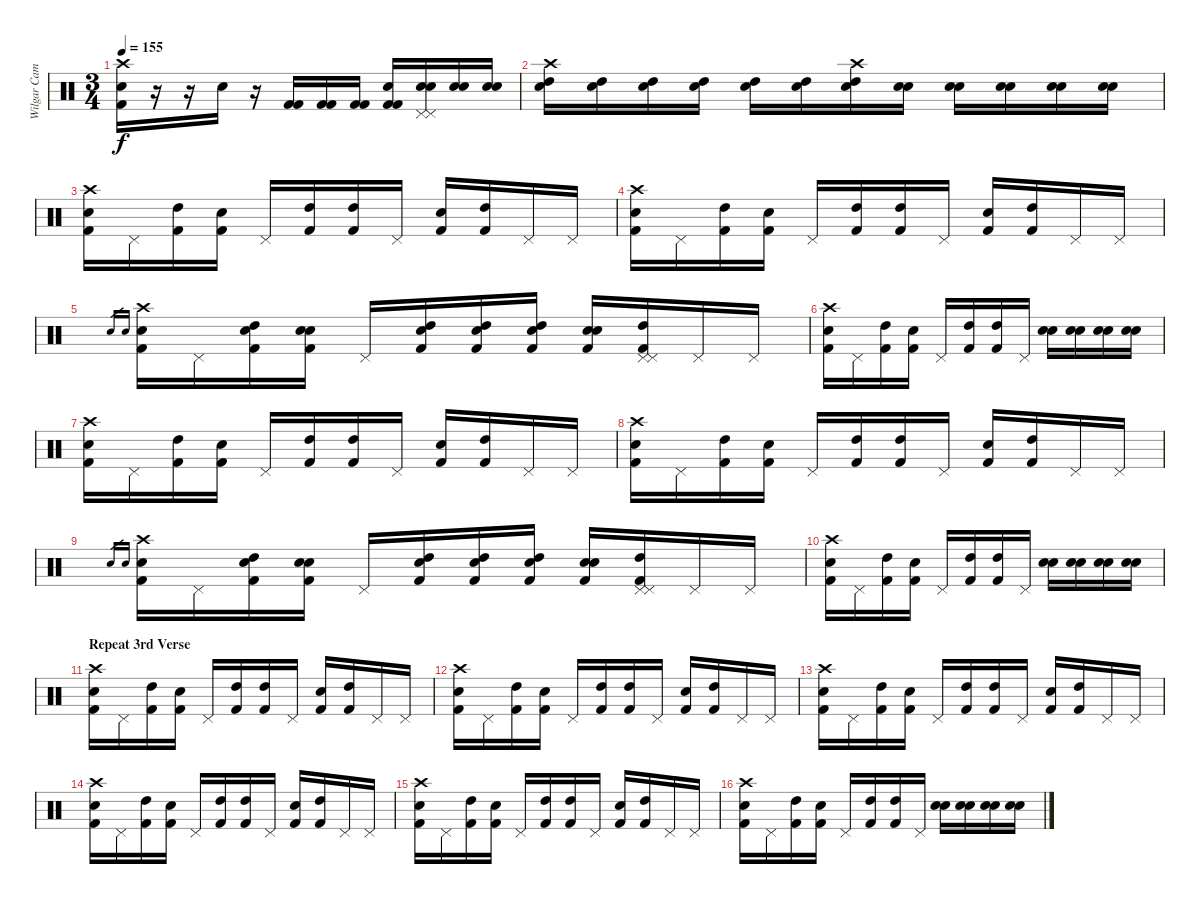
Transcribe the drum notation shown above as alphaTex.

\track ("Wilgar Campbell" "Wilgar Cam") {instrument percussion}
\staff {score}
\articulation defaults
\ts (3 4)
\tempo 155
\clef neutral
\ks c
("Snare (hit) 2" "Kick (hit) 2" "Crash high (hit)").16{dy f} r.16 r.16 "Electric Snare (hit)".16 r.16 ("Kick (hit) 2" "Kick (hit) 2").16 ("Kick (hit) 2" "Kick (hit) 2").16 ("Kick (hit) 2" "Kick (hit) 2").16 ("Kick (hit) 2" "Kick (hit) 2" "Electric Snare (hit)").16 ("Pedal Hi-Hat (hit)" "Electric Snare (hit)" "Pedal Hi-Hat (hit)" "Electric Snare (hit)").16 ("Electric Snare (hit)" "Electric Snare (hit)").16 ("Electric Snare (hit)" "Electric Snare (hit)").16 |
("Crash high (hit)" "High Tom (hit)" "Snare (hit) 2").16 ("High Tom (hit)" "Snare (hit) 2").16 ("High Tom (hit)" "Snare (hit) 2").16 ("High Tom (hit)" "Snare (hit) 2").16 ("High Tom (hit)" "Snare (hit) 2").16 ("High Tom (hit)" "Snare (hit) 2").16 ("Crash high (hit)" "High Tom (hit)" "Snare (hit) 2").16 ("Electric Snare (hit)" "Electric Snare (hit)").16 ("Electric Snare (hit)" "Snare (hit) 2").16 ("Electric Snare (hit)" "Electric Snare (hit)").16 ("Electric Snare (hit)" "Snare (hit) 2").16 ("Electric Snare (hit)" "Electric Snare (hit)").16 |
("Kick (hit) 2" "Snare (hit) 2" "Crash high (hit)").16 "Pedal Hi-Hat (hit)".16 ("Kick (hit) 2" "High Tom (hit)").16 ("Kick (hit) 2" "Snare (hit) 2").16 "Pedal Hi-Hat (hit)".16 ("High Tom (hit)" "Kick (hit) 2").16 ("High Tom (hit)" "Kick (hit) 2").16 "Pedal Hi-Hat (hit)".16 ("Electric Snare (hit)" "Kick (hit) 2").16 ("High Tom (hit)" "Kick (hit) 2").16 "Pedal Hi-Hat (hit)".16 "Pedal Hi-Hat (hit)".16 |
("Kick (hit) 2" "Snare (hit) 2" "Crash high (hit)").16 "Pedal Hi-Hat (hit)".16 ("Kick (hit) 2" "High Tom (hit)").16 ("Kick (hit) 2" "Snare (hit) 2").16 "Pedal Hi-Hat (hit)".16 ("High Tom (hit)" "Kick (hit) 2").16 ("High Tom (hit)" "Kick (hit) 2").16 "Pedal Hi-Hat (hit)".16 ("Electric Snare (hit)" "Kick (hit) 2").16 ("High Tom (hit)" "Kick (hit) 2").16 "Pedal Hi-Hat (hit)".16 "Pedal Hi-Hat (hit)".16 |
"Electric Snare (hit)".16{gr} "Electric Snare (hit)".16{gr} ("Kick (hit) 2" "Snare (hit) 2" "Crash high (hit)").16 "Pedal Hi-Hat (hit)".16 ("Electric Snare (hit)" "Kick (hit) 2" "High Tom (hit)").16 ("Electric Snare (hit)" "Kick (hit) 2" "Snare (hit) 2").16 "Pedal Hi-Hat (hit)".16 ("Electric Snare (hit)" "High Tom (hit)" "Kick (hit) 2").16 ("Electric Snare (hit)" "High Tom (hit)" "Kick (hit) 2").16 ("Electric Snare (hit)" "High Tom (hit)" "Kick (hit) 2").16 ("Electric Snare (hit)" "Electric Snare (hit)" "Kick (hit) 2").16 ("Kick (hit) 2" "Pedal Hi-Hat (hit)" "High Tom (hit)" "Pedal Hi-Hat (hit)").16 "Pedal Hi-Hat (hit)".16 "Pedal Hi-Hat (hit)".16 |
("Kick (hit) 2" "Snare (hit) 2" "Crash high (hit)").16 "Pedal Hi-Hat (hit)".16 ("Kick (hit) 2" "High Tom (hit)").16 ("Kick (hit) 2" "Snare (hit) 2").16 "Pedal Hi-Hat (hit)".16 ("High Tom (hit)" "Kick (hit) 2").16 ("High Tom (hit)" "Kick (hit) 2").16 "Pedal Hi-Hat (hit)".16 ("Electric Snare (hit)" "Electric Snare (hit)").16 ("Electric Snare (hit)" "Electric Snare (hit)").16 ("Electric Snare (hit)" "Electric Snare (hit)").16 ("Electric Snare (hit)" "Electric Snare (hit)").16 |
("Kick (hit) 2" "Snare (hit) 2" "Crash high (hit)").16 "Pedal Hi-Hat (hit)".16 ("Kick (hit) 2" "High Tom (hit)").16 ("Kick (hit) 2" "Snare (hit) 2").16 "Pedal Hi-Hat (hit)".16 ("High Tom (hit)" "Kick (hit) 2").16 ("High Tom (hit)" "Kick (hit) 2").16 "Pedal Hi-Hat (hit)".16 ("Electric Snare (hit)" "Kick (hit) 2").16 ("High Tom (hit)" "Kick (hit) 2").16 "Pedal Hi-Hat (hit)".16 "Pedal Hi-Hat (hit)".16 |
("Kick (hit) 2" "Snare (hit) 2" "Crash high (hit)").16 "Pedal Hi-Hat (hit)".16 ("Kick (hit) 2" "High Tom (hit)").16 ("Kick (hit) 2" "Snare (hit) 2").16 "Pedal Hi-Hat (hit)".16 ("High Tom (hit)" "Kick (hit) 2").16 ("High Tom (hit)" "Kick (hit) 2").16 "Pedal Hi-Hat (hit)".16 ("Electric Snare (hit)" "Kick (hit) 2").16 ("High Tom (hit)" "Kick (hit) 2").16 "Pedal Hi-Hat (hit)".16 "Pedal Hi-Hat (hit)".16 |
"Electric Snare (hit)".16{gr} "Electric Snare (hit)".16{gr} ("Kick (hit) 2" "Snare (hit) 2" "Crash high (hit)").16 "Pedal Hi-Hat (hit)".16 ("Electric Snare (hit)" "Kick (hit) 2" "High Tom (hit)").16 ("Electric Snare (hit)" "Kick (hit) 2" "Snare (hit) 2").16 "Pedal Hi-Hat (hit)".16 ("Electric Snare (hit)" "High Tom (hit)" "Kick (hit) 2").16 ("Electric Snare (hit)" "High Tom (hit)" "Kick (hit) 2").16 ("Electric Snare (hit)" "High Tom (hit)" "Kick (hit) 2").16 ("Electric Snare (hit)" "Electric Snare (hit)" "Kick (hit) 2").16 ("Kick (hit) 2" "Pedal Hi-Hat (hit)" "High Tom (hit)" "Pedal Hi-Hat (hit)").16 "Pedal Hi-Hat (hit)".16 "Pedal Hi-Hat (hit)".16 |
("Kick (hit) 2" "Snare (hit) 2" "Crash high (hit)").16 "Pedal Hi-Hat (hit)".16 ("Kick (hit) 2" "High Tom (hit)").16 ("Kick (hit) 2" "Snare (hit) 2").16 "Pedal Hi-Hat (hit)".16 ("High Tom (hit)" "Kick (hit) 2").16 ("High Tom (hit)" "Kick (hit) 2").16 "Pedal Hi-Hat (hit)".16 ("Electric Snare (hit)" "Electric Snare (hit)").16 ("Electric Snare (hit)" "Electric Snare (hit)").16 ("Electric Snare (hit)" "Electric Snare (hit)").16 ("Electric Snare (hit)" "Electric Snare (hit)").16 |
\section ("" "Repeat 3rd Verse")
("Kick (hit) 2" "Snare (hit) 2" "Crash high (hit)").16 "Pedal Hi-Hat (hit)".16 ("Kick (hit) 2" "High Tom (hit)").16 ("Kick (hit) 2" "Snare (hit) 2").16 "Pedal Hi-Hat (hit)".16 ("High Tom (hit)" "Kick (hit) 2").16 ("High Tom (hit)" "Kick (hit) 2").16 "Pedal Hi-Hat (hit)".16 ("Electric Snare (hit)" "Kick (hit) 2").16 ("High Tom (hit)" "Kick (hit) 2").16 "Pedal Hi-Hat (hit)".16 "Pedal Hi-Hat (hit)".16 |
("Kick (hit) 2" "Snare (hit) 2" "Crash high (hit)").16 "Pedal Hi-Hat (hit)".16 ("Kick (hit) 2" "High Tom (hit)").16 ("Kick (hit) 2" "Snare (hit) 2").16 "Pedal Hi-Hat (hit)".16 ("High Tom (hit)" "Kick (hit) 2").16 ("High Tom (hit)" "Kick (hit) 2").16 "Pedal Hi-Hat (hit)".16 ("Electric Snare (hit)" "Kick (hit) 2").16 ("High Tom (hit)" "Kick (hit) 2").16 "Pedal Hi-Hat (hit)".16 "Pedal Hi-Hat (hit)".16 |
("Kick (hit) 2" "Snare (hit) 2" "Crash high (hit)").16 "Pedal Hi-Hat (hit)".16 ("Kick (hit) 2" "High Tom (hit)").16 ("Kick (hit) 2" "Snare (hit) 2").16 "Pedal Hi-Hat (hit)".16 ("High Tom (hit)" "Kick (hit) 2").16 ("High Tom (hit)" "Kick (hit) 2").16 "Pedal Hi-Hat (hit)".16 ("Electric Snare (hit)" "Kick (hit) 2").16 ("High Tom (hit)" "Kick (hit) 2").16 "Pedal Hi-Hat (hit)".16 "Pedal Hi-Hat (hit)".16 |
("Kick (hit) 2" "Snare (hit) 2" "Crash high (hit)").16 "Pedal Hi-Hat (hit)".16 ("Kick (hit) 2" "High Tom (hit)").16 ("Kick (hit) 2" "Snare (hit) 2").16 "Pedal Hi-Hat (hit)".16 ("High Tom (hit)" "Kick (hit) 2").16 ("High Tom (hit)" "Kick (hit) 2").16 "Pedal Hi-Hat (hit)".16 ("Electric Snare (hit)" "Kick (hit) 2").16 ("High Tom (hit)" "Kick (hit) 2").16 "Pedal Hi-Hat (hit)".16 "Pedal Hi-Hat (hit)".16 |
("Kick (hit) 2" "Snare (hit) 2" "Crash high (hit)").16 "Pedal Hi-Hat (hit)".16 ("Kick (hit) 2" "High Tom (hit)").16 ("Kick (hit) 2" "Snare (hit) 2").16 "Pedal Hi-Hat (hit)".16 ("High Tom (hit)" "Kick (hit) 2").16 ("High Tom (hit)" "Kick (hit) 2").16 "Pedal Hi-Hat (hit)".16 ("Electric Snare (hit)" "Kick (hit) 2").16 ("High Tom (hit)" "Kick (hit) 2").16 "Pedal Hi-Hat (hit)".16 "Pedal Hi-Hat (hit)".16 |
("Kick (hit) 2" "Snare (hit) 2" "Crash high (hit)").16 "Pedal Hi-Hat (hit)".16 ("Kick (hit) 2" "High Tom (hit)").16 ("Kick (hit) 2" "Snare (hit) 2").16 "Pedal Hi-Hat (hit)".16 ("High Tom (hit)" "Kick (hit) 2").16 ("High Tom (hit)" "Kick (hit) 2").16 "Pedal Hi-Hat (hit)".16 ("Electric Snare (hit)" "Electric Snare (hit)").16 ("Electric Snare (hit)" "Electric Snare (hit)").16 ("Electric Snare (hit)" "Electric Snare (hit)").16 ("Electric Snare (hit)" "Electric Snare (hit)").16
